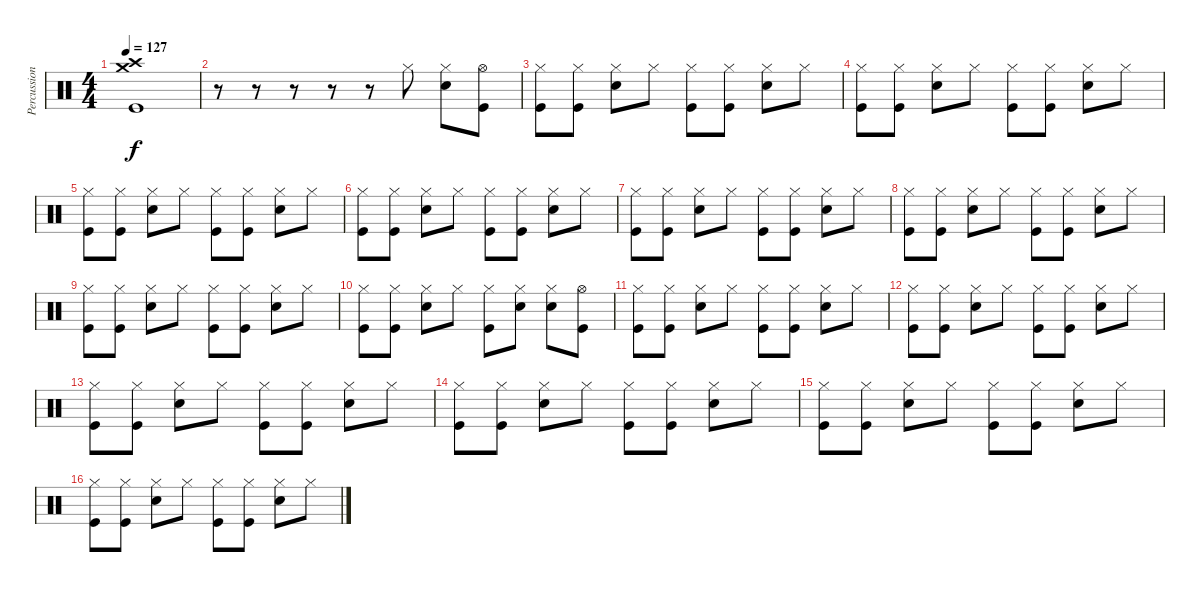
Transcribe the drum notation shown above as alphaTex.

\track ("Percussion" "Percussion") {instrument percussion}
\staff {score}
\articulation defaults
\ts (4 4)
\tempo 127
\clef neutral
\ks c
("Crash high (hit)" "Crash medium (hit)" "Kick (hit)").1{dy f} |
r.8 r.8 r.8 r.8 r.8 "Hi-Hat (closed)".8 ("Hi-Hat (closed)" "Snare (hit) 2").8 ("Hi-Hat (open)" "Kick (hit)").8 |
("Hi-Hat (closed)" "Kick (hit)").8 ("Hi-Hat (closed)" "Kick (hit)").8 ("Hi-Hat (closed)" "Snare (hit) 2").8 "Hi-Hat (closed)".8 ("Hi-Hat (closed)" "Kick (hit)").8 ("Hi-Hat (closed)" "Kick (hit)").8 ("Hi-Hat (closed)" "Snare (hit) 2").8 "Hi-Hat (closed)".8 |
("Hi-Hat (closed)" "Kick (hit)").8 ("Hi-Hat (closed)" "Kick (hit)").8 ("Hi-Hat (closed)" "Snare (hit) 2").8 "Hi-Hat (closed)".8 ("Hi-Hat (closed)" "Kick (hit)").8 ("Hi-Hat (closed)" "Kick (hit)").8 ("Hi-Hat (closed)" "Snare (hit) 2").8 "Hi-Hat (closed)".8 |
("Hi-Hat (closed)" "Kick (hit)").8 ("Hi-Hat (closed)" "Kick (hit)").8 ("Hi-Hat (closed)" "Snare (hit) 2").8 "Hi-Hat (closed)".8 ("Hi-Hat (closed)" "Kick (hit)").8 ("Hi-Hat (closed)" "Kick (hit)").8 ("Hi-Hat (closed)" "Snare (hit) 2").8 "Hi-Hat (closed)".8 |
("Hi-Hat (closed)" "Kick (hit)").8 ("Hi-Hat (closed)" "Kick (hit)").8 ("Hi-Hat (closed)" "Snare (hit) 2").8 "Hi-Hat (closed)".8 ("Hi-Hat (closed)" "Kick (hit)").8 ("Hi-Hat (closed)" "Kick (hit)").8 ("Hi-Hat (closed)" "Snare (hit) 2").8 "Hi-Hat (closed)".8 |
("Hi-Hat (closed)" "Kick (hit)").8 ("Hi-Hat (closed)" "Kick (hit)").8 ("Hi-Hat (closed)" "Snare (hit) 2").8 "Hi-Hat (closed)".8 ("Hi-Hat (closed)" "Kick (hit)").8 ("Hi-Hat (closed)" "Kick (hit)").8 ("Hi-Hat (closed)" "Snare (hit) 2").8 "Hi-Hat (closed)".8 |
("Hi-Hat (closed)" "Kick (hit)").8 ("Hi-Hat (closed)" "Kick (hit)").8 ("Hi-Hat (closed)" "Snare (hit) 2").8 "Hi-Hat (closed)".8 ("Hi-Hat (closed)" "Kick (hit)").8 ("Hi-Hat (closed)" "Kick (hit)").8 ("Hi-Hat (closed)" "Snare (hit) 2").8 "Hi-Hat (closed)".8 |
("Hi-Hat (closed)" "Kick (hit)").8 ("Hi-Hat (closed)" "Kick (hit)").8 ("Hi-Hat (closed)" "Snare (hit) 2").8 "Hi-Hat (closed)".8 ("Hi-Hat (closed)" "Kick (hit)").8 ("Hi-Hat (closed)" "Kick (hit)").8 ("Hi-Hat (closed)" "Snare (hit) 2").8 "Hi-Hat (closed)".8 |
("Hi-Hat (closed)" "Kick (hit)").8 ("Hi-Hat (closed)" "Kick (hit)").8 ("Hi-Hat (closed)" "Snare (hit) 2").8 "Hi-Hat (closed)".8 ("Hi-Hat (closed)" "Kick (hit)").8 ("Hi-Hat (closed)" "Snare (hit) 2").8 ("Hi-Hat (closed)" "Snare (hit) 2").8 ("Hi-Hat (open)" "Kick (hit)").8 |
("Hi-Hat (closed)" "Kick (hit)").8 ("Hi-Hat (closed)" "Kick (hit)").8 ("Hi-Hat (closed)" "Snare (hit) 2").8 "Hi-Hat (closed)".8 ("Hi-Hat (closed)" "Kick (hit)").8 ("Hi-Hat (closed)" "Kick (hit)").8 ("Hi-Hat (closed)" "Snare (hit) 2").8 "Hi-Hat (closed)".8 |
("Hi-Hat (closed)" "Kick (hit)").8 ("Hi-Hat (closed)" "Kick (hit)").8 ("Hi-Hat (closed)" "Snare (hit) 2").8 "Hi-Hat (closed)".8 ("Hi-Hat (closed)" "Kick (hit)").8 ("Hi-Hat (closed)" "Kick (hit)").8 ("Hi-Hat (closed)" "Snare (hit) 2").8 "Hi-Hat (closed)".8 |
("Hi-Hat (closed)" "Kick (hit)").8 ("Hi-Hat (closed)" "Kick (hit)").8 ("Hi-Hat (closed)" "Snare (hit) 2").8 "Hi-Hat (closed)".8 ("Hi-Hat (closed)" "Kick (hit)").8 ("Hi-Hat (closed)" "Kick (hit)").8 ("Hi-Hat (closed)" "Snare (hit) 2").8 "Hi-Hat (closed)".8 |
("Hi-Hat (closed)" "Kick (hit)").8 ("Hi-Hat (closed)" "Kick (hit)").8 ("Hi-Hat (closed)" "Snare (hit) 2").8 "Hi-Hat (closed)".8 ("Hi-Hat (closed)" "Kick (hit)").8 ("Hi-Hat (closed)" "Kick (hit)").8 ("Hi-Hat (closed)" "Snare (hit) 2").8 "Hi-Hat (closed)".8 |
("Hi-Hat (closed)" "Kick (hit)").8 ("Hi-Hat (closed)" "Kick (hit)").8 ("Hi-Hat (closed)" "Snare (hit) 2").8 "Hi-Hat (closed)".8 ("Hi-Hat (closed)" "Kick (hit)").8 ("Hi-Hat (closed)" "Kick (hit)").8 ("Hi-Hat (closed)" "Snare (hit) 2").8 "Hi-Hat (closed)".8 |
("Hi-Hat (closed)" "Kick (hit)").8 ("Hi-Hat (closed)" "Kick (hit)").8 ("Hi-Hat (closed)" "Snare (hit) 2").8 "Hi-Hat (closed)".8 ("Hi-Hat (closed)" "Kick (hit)").8 ("Hi-Hat (closed)" "Kick (hit)").8 ("Hi-Hat (closed)" "Snare (hit) 2").8 "Hi-Hat (closed)".8
